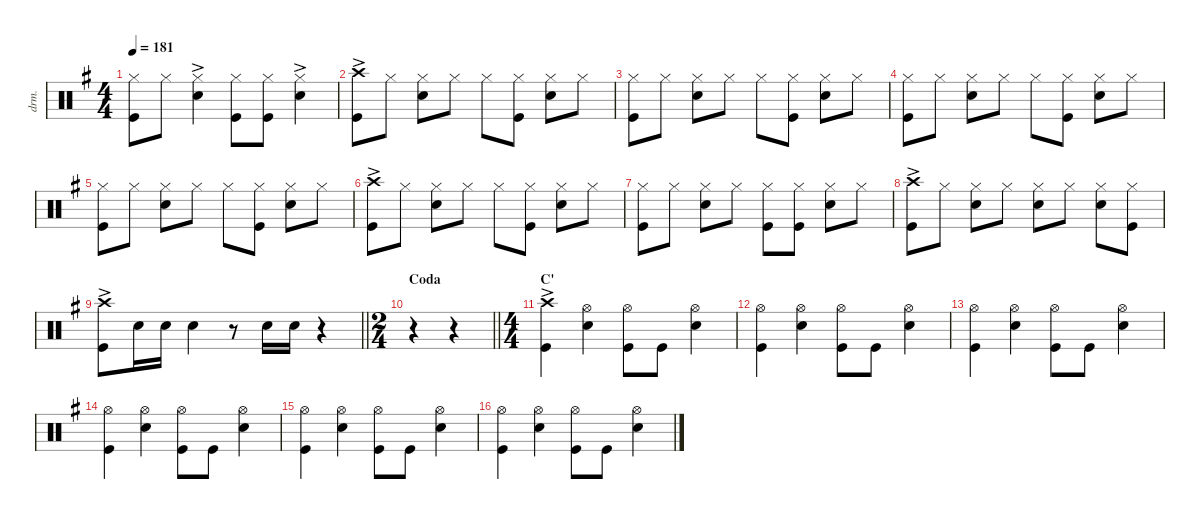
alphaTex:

\defaultSystemsLayout 4
\hideDynamics
\bracketExtendMode nobrackets
\track ("Drums" "drm.") {instrument percussion}
\staff {score}
\articulation defaults
\ts (4 4)
\tempo 181
\clef neutral
\ks g
("Hi-Hat (closed)"{acc forcenatural} "Kick (hit)"{acc forcenatural}).8{dy f} "Hi-Hat (closed)"{acc forcenatural}.8 ("Hi-Hat (closed)"{ac acc forcenatural} "Snare (hit) 2"{acc forcenatural}).4 ("Hi-Hat (closed)"{acc forcenatural} "Kick (hit)"{acc forcenatural}).8 ("Kick (hit)"{acc forcenatural} "Hi-Hat (closed)"{acc forcenatural}).8 ("Snare (hit) 2"{acc forcenatural} "Hi-Hat (closed)"{ac acc forcenatural}).4 |
("Crash high (hit)"{ac acc forcenatural} "Kick (hit)"{acc forcenatural}).8 "Hi-Hat (closed)"{acc forcenatural}.8 ("Snare (hit) 2"{acc forcenatural} "Hi-Hat (closed)"{acc forcenatural}).8 "Hi-Hat (closed)"{acc forcenatural}.8 "Hi-Hat (closed)"{acc forcenatural}.8 ("Hi-Hat (closed)"{acc forcenatural} "Kick (hit)"{acc forcenatural}).8 ("Snare (hit) 2"{acc forcenatural} "Hi-Hat (closed)"{acc forcenatural}).8 "Hi-Hat (closed)"{acc forcenatural}.8 |
("Hi-Hat (closed)"{acc forcenatural} "Kick (hit)"{acc forcenatural}).8 "Hi-Hat (closed)"{acc forcenatural}.8 ("Snare (hit) 2"{acc forcenatural} "Hi-Hat (closed)"{acc forcenatural}).8 "Hi-Hat (closed)"{acc forcenatural}.8 "Hi-Hat (closed)"{acc forcenatural}.8 ("Hi-Hat (closed)"{acc forcenatural} "Kick (hit)"{acc forcenatural}).8 ("Snare (hit) 2"{acc forcenatural} "Hi-Hat (closed)"{acc forcenatural}).8 "Hi-Hat (closed)"{acc forcenatural}.8 |
("Hi-Hat (closed)"{acc forcenatural} "Kick (hit)"{acc forcenatural}).8 "Hi-Hat (closed)"{acc forcenatural}.8 ("Snare (hit) 2"{acc forcenatural} "Hi-Hat (closed)"{acc forcenatural}).8 "Hi-Hat (closed)"{acc forcenatural}.8 "Hi-Hat (closed)"{acc forcenatural}.8 ("Hi-Hat (closed)"{acc forcenatural} "Kick (hit)"{acc forcenatural}).8 ("Snare (hit) 2"{acc forcenatural} "Hi-Hat (closed)"{acc forcenatural}).8 "Hi-Hat (closed)"{acc forcenatural}.8 |
("Hi-Hat (closed)"{acc forcenatural} "Kick (hit)"{acc forcenatural}).8 "Hi-Hat (closed)"{acc forcenatural}.8 ("Snare (hit) 2"{acc forcenatural} "Hi-Hat (closed)"{acc forcenatural}).8 "Hi-Hat (closed)"{acc forcenatural}.8 "Hi-Hat (closed)"{acc forcenatural}.8 ("Hi-Hat (closed)"{acc forcenatural} "Kick (hit)"{acc forcenatural}).8 ("Snare (hit) 2"{acc forcenatural} "Hi-Hat (closed)"{acc forcenatural}).8 "Hi-Hat (closed)"{acc forcenatural}.8 |
("Crash high (hit)"{ac acc forcenatural} "Kick (hit)"{acc forcenatural}).8 "Hi-Hat (closed)"{acc forcenatural}.8 ("Snare (hit) 2"{acc forcenatural} "Hi-Hat (closed)"{acc forcenatural}).8 "Hi-Hat (closed)"{acc forcenatural}.8 "Hi-Hat (closed)"{acc forcenatural}.8 ("Hi-Hat (closed)"{acc forcenatural} "Kick (hit)"{acc forcenatural}).8 ("Snare (hit) 2"{acc forcenatural} "Hi-Hat (closed)"{acc forcenatural}).8 "Hi-Hat (closed)"{acc forcenatural}.8 |
("Hi-Hat (closed)"{acc forcenatural} "Kick (hit)"{acc forcenatural}).8 "Hi-Hat (closed)"{acc forcenatural}.8 ("Hi-Hat (closed)"{acc forcenatural} "Snare (hit) 2"{acc forcenatural}).8 "Hi-Hat (closed)"{acc forcenatural}.8 ("Hi-Hat (closed)"{acc forcenatural} "Kick (hit)"{acc forcenatural}).8 ("Hi-Hat (closed)"{acc forcenatural} "Kick (hit)"{acc forcenatural}).8 ("Snare (hit) 2"{acc forcenatural} "Hi-Hat (closed)"{acc forcenatural}).8 "Hi-Hat (closed)"{acc forcenatural}.8 |
("Crash high (hit)"{ac acc forcenatural} "Kick (hit)"{acc forcenatural}).8 "Hi-Hat (closed)"{acc forcenatural}.8 ("Hi-Hat (closed)"{acc forcenatural} "Snare (hit) 2"{acc forcenatural}).8 "Hi-Hat (closed)"{acc forcenatural}.8 ("Hi-Hat (closed)"{acc forcenatural} "Snare (hit) 2"{acc forcenatural}).8 "Hi-Hat (closed)"{acc forcenatural}.8 ("Hi-Hat (closed)"{acc forcenatural} "Snare (hit) 2"{acc forcenatural}).8 ("Hi-Hat (closed)"{acc forcenatural} "Kick (hit)"{acc forcenatural}).8 |
\barLineRight lightlight
("Crash high (hit)"{ac acc forcenatural} "Kick (hit)"{acc forcenatural}).8 "Snare (hit) 2"{acc forcenatural}.16 "Snare (hit) 2"{acc forcenatural}.16 "Snare (hit) 2"{acc forcenatural}.4 r.8 "Snare (hit) 2"{acc forcenatural}.16 "Snare (hit) 2"{acc forcenatural}.16 r.4 |
\ts (2 4)
\beaming (8 2 2)
\section ("" "Coda")
\barLineRight lightlight
r.4 r.4 |
\ts (4 4)
\beaming (8 2 2 2 2)
\section ("" "C'")
("Kick (hit)"{acc forcenatural} "Crash high (hit)"{ac acc forcenatural}).4 ("Hi-Hat (open)"{acc forcenatural} "Snare (hit) 2"{acc forcenatural}).4 ("Kick (hit)"{acc forcenatural} "Hi-Hat (open)"{acc forcenatural}).8 "Kick (hit)"{acc forcenatural}.8 ("Snare (hit) 2"{acc forcenatural} "Hi-Hat (open)"{acc forcenatural}).4 |
("Kick (hit)"{acc forcenatural} "Hi-Hat (open)"{acc forcenatural}).4 ("Hi-Hat (open)"{acc forcenatural} "Snare (hit) 2"{acc forcenatural}).4 ("Kick (hit)"{acc forcenatural} "Hi-Hat (open)"{acc forcenatural}).8 "Kick (hit)"{acc forcenatural}.8 ("Snare (hit) 2"{acc forcenatural} "Hi-Hat (open)"{acc forcenatural}).4 |
("Kick (hit)"{acc forcenatural} "Hi-Hat (open)"{acc forcenatural}).4 ("Hi-Hat (open)"{acc forcenatural} "Snare (hit) 2"{acc forcenatural}).4 ("Kick (hit)"{acc forcenatural} "Hi-Hat (open)"{acc forcenatural}).8 "Kick (hit)"{acc forcenatural}.8 ("Snare (hit) 2"{acc forcenatural} "Hi-Hat (open)"{acc forcenatural}).4 |
("Kick (hit)"{acc forcenatural} "Hi-Hat (open)"{acc forcenatural}).4 ("Hi-Hat (open)"{acc forcenatural} "Snare (hit) 2"{acc forcenatural}).4 ("Kick (hit)"{acc forcenatural} "Hi-Hat (open)"{acc forcenatural}).8 "Kick (hit)"{acc forcenatural}.8 ("Snare (hit) 2"{acc forcenatural} "Hi-Hat (open)"{acc forcenatural}).4 |
("Kick (hit)"{acc forcenatural} "Hi-Hat (open)"{acc forcenatural}).4 ("Hi-Hat (open)"{acc forcenatural} "Snare (hit) 2"{acc forcenatural}).4 ("Kick (hit)"{acc forcenatural} "Hi-Hat (open)"{acc forcenatural}).8 "Kick (hit)"{acc forcenatural}.8 ("Snare (hit) 2"{acc forcenatural} "Hi-Hat (open)"{acc forcenatural}).4 |
("Kick (hit)"{acc forcenatural} "Hi-Hat (open)"{acc forcenatural}).4 ("Hi-Hat (open)"{acc forcenatural} "Snare (hit) 2"{acc forcenatural}).4 ("Kick (hit)"{acc forcenatural} "Hi-Hat (open)"{acc forcenatural}).8 "Kick (hit)"{acc forcenatural}.8 ("Snare (hit) 2"{acc forcenatural} "Hi-Hat (open)"{acc forcenatural}).4
